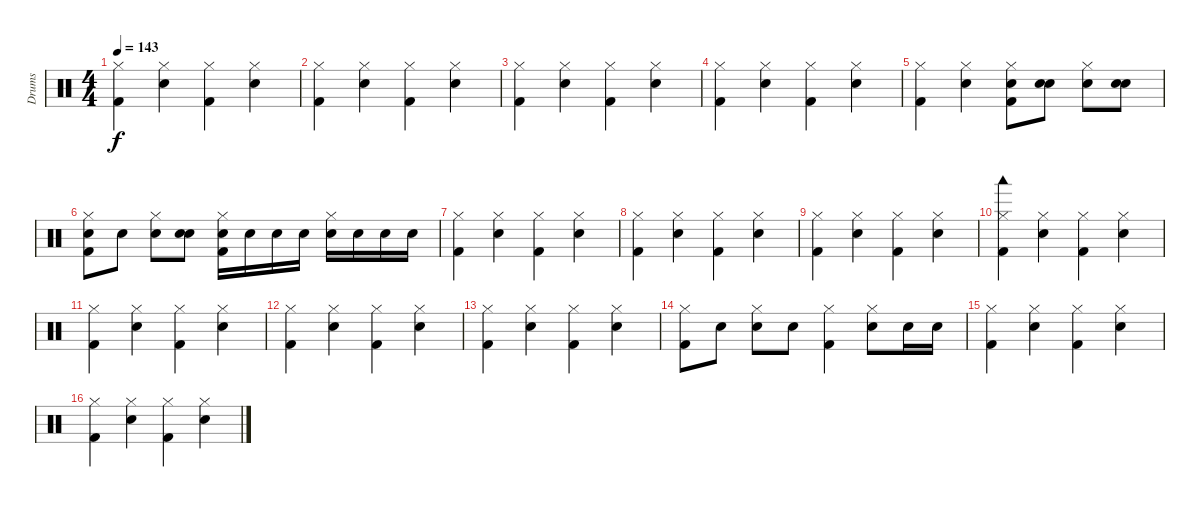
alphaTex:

\track ("Drums" "Drums") {instrument percussion}
\staff {score}
\articulation defaults
\ts (4 4)
\tempo 143
\clef neutral
\ks c
("Hi-Hat (closed)" "Kick (hit) 2").4{dy f} ("Hi-Hat (closed)" "Electric Snare (hit)").4 ("Hi-Hat (closed)" "Kick (hit) 2").4 ("Hi-Hat (closed)" "Electric Snare (hit)").4 |
("Hi-Hat (closed)" "Kick (hit) 2").4 ("Hi-Hat (closed)" "Electric Snare (hit)").4 ("Hi-Hat (closed)" "Kick (hit) 2").4 ("Hi-Hat (closed)" "Electric Snare (hit)").4 |
("Hi-Hat (closed)" "Kick (hit) 2").4 ("Hi-Hat (closed)" "Electric Snare (hit)").4 ("Hi-Hat (closed)" "Kick (hit) 2").4 ("Hi-Hat (closed)" "Electric Snare (hit)").4 |
("Hi-Hat (closed)" "Kick (hit) 2").4 ("Hi-Hat (closed)" "Electric Snare (hit)").4 ("Hi-Hat (closed)" "Kick (hit) 2").4 ("Hi-Hat (closed)" "Electric Snare (hit)").4 |
("Hi-Hat (closed)" "Kick (hit) 2").4 ("Hi-Hat (closed)" "Electric Snare (hit)").4 ("Hi-Hat (closed)" "Electric Snare (hit)" "Kick (hit) 2").8 ("Electric Snare (hit)" "Electric Snare (hit)").8 ("Hi-Hat (closed)" "Electric Snare (hit)").8 ("Electric Snare (hit)" "Electric Snare (hit)").8 |
("Hi-Hat (closed)" "Electric Snare (hit)" "Kick (hit) 2").8 "Electric Snare (hit)".8 ("Hi-Hat (closed)" "Electric Snare (hit)").8 ("Electric Snare (hit)" "Electric Snare (hit)").8 ("Hi-Hat (closed)" "Electric Snare (hit)" "Kick (hit) 2").16 "Electric Snare (hit)".16 "Electric Snare (hit)".16 "Electric Snare (hit)".16 ("Hi-Hat (closed)" "Electric Snare (hit)").16 "Electric Snare (hit)".16 "Electric Snare (hit)".16 "Electric Snare (hit)".16 |
("Hi-Hat (closed)" "Kick (hit) 2").4 ("Hi-Hat (closed)" "Electric Snare (hit)").4 ("Hi-Hat (closed)" "Kick (hit) 2").4 ("Hi-Hat (closed)" "Electric Snare (hit)").4 |
("Hi-Hat (closed)" "Kick (hit) 2").4 ("Hi-Hat (closed)" "Electric Snare (hit)").4 ("Hi-Hat (closed)" "Kick (hit) 2").4 ("Hi-Hat (closed)" "Electric Snare (hit)").4 |
("Hi-Hat (closed)" "Kick (hit) 2").4 ("Hi-Hat (closed)" "Electric Snare (hit)").4 ("Hi-Hat (closed)" "Kick (hit) 2").4 ("Hi-Hat (closed)" "Electric Snare (hit)").4 |
("Hi-Hat (closed)" "Woodblock low (hit)" "Kick (hit) 2").4 ("Hi-Hat (closed)" "Electric Snare (hit)").4 ("Hi-Hat (closed)" "Kick (hit) 2").4 ("Hi-Hat (closed)" "Electric Snare (hit)").4 |
("Hi-Hat (closed)" "Kick (hit) 2").4 ("Hi-Hat (closed)" "Electric Snare (hit)").4 ("Hi-Hat (closed)" "Kick (hit) 2").4 ("Hi-Hat (closed)" "Electric Snare (hit)").4 |
("Hi-Hat (closed)" "Kick (hit) 2").4 ("Hi-Hat (closed)" "Electric Snare (hit)").4 ("Hi-Hat (closed)" "Kick (hit) 2").4 ("Hi-Hat (closed)" "Electric Snare (hit)").4 |
("Hi-Hat (closed)" "Kick (hit) 2").4 ("Hi-Hat (closed)" "Electric Snare (hit)").4 ("Hi-Hat (closed)" "Kick (hit) 2").4 ("Hi-Hat (closed)" "Electric Snare (hit)").4 |
("Hi-Hat (closed)" "Kick (hit) 2").8 "Electric Snare (hit)".8 ("Hi-Hat (closed)" "Electric Snare (hit)").8 "Electric Snare (hit)".8 ("Hi-Hat (closed)" "Kick (hit) 2").4 ("Hi-Hat (closed)" "Electric Snare (hit)").8 "Electric Snare (hit)".16 "Snare (hit) 2".16 |
("Hi-Hat (closed)" "Kick (hit) 2").4 ("Hi-Hat (closed)" "Electric Snare (hit)").4 ("Hi-Hat (closed)" "Kick (hit) 2").4 ("Hi-Hat (closed)" "Electric Snare (hit)").4 |
("Hi-Hat (closed)" "Kick (hit) 2").4 ("Hi-Hat (closed)" "Electric Snare (hit)").4 ("Hi-Hat (closed)" "Kick (hit) 2").4 ("Hi-Hat (closed)" "Electric Snare (hit)").4
